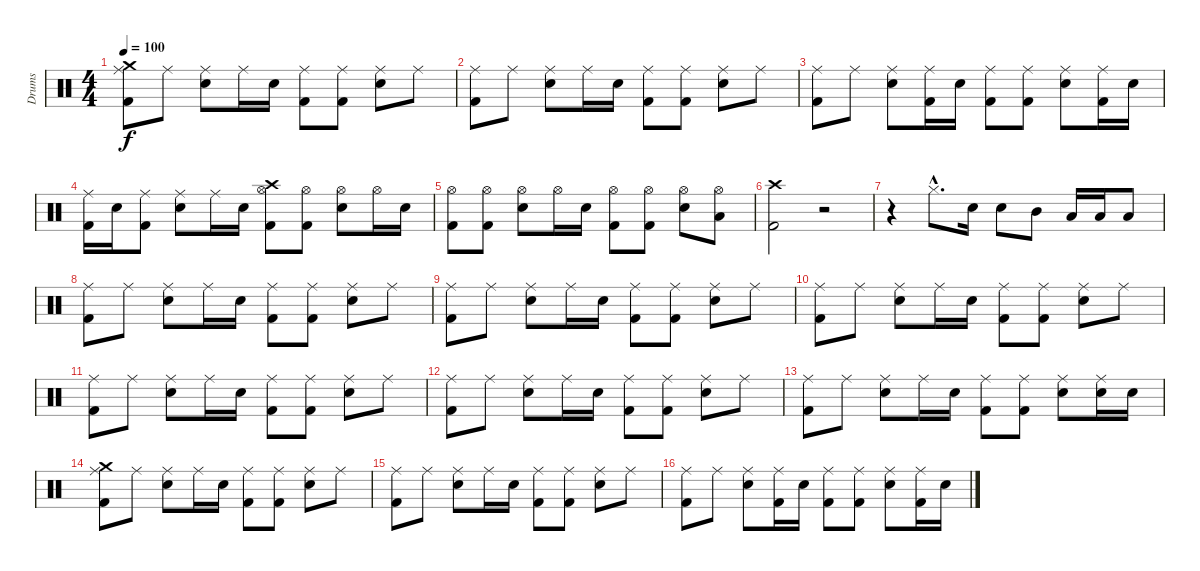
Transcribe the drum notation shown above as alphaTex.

\track ("Drums" "Drums") {instrument percussion}
\staff {score}
\articulation defaults
\ts (4 4)
\tempo 100
\clef neutral
\ks c
("Crash medium (hit)" "Ride (middle)" "Kick (hit) 2").8{dy f} "Ride (middle)".8 ("Ride (middle)" "Electric Snare (hit)").8 "Ride (middle)".16 "Electric Snare (hit)".16 ("Ride (middle)" "Kick (hit) 2").8 ("Ride (middle)" "Kick (hit) 2").8 ("Ride (middle)" "Electric Snare (hit)").8 "Ride (middle)".8 |
("Ride (middle)" "Kick (hit) 2").8 "Ride (middle)".8 ("Ride (middle)" "Electric Snare (hit)").8 "Ride (middle)".16 "Electric Snare (hit)".16 ("Ride (middle)" "Kick (hit) 2").8 ("Ride (middle)" "Kick (hit) 2").8 ("Ride (middle)" "Electric Snare (hit)").8 "Ride (middle)".8 |
("Ride (middle)" "Kick (hit) 2").8 "Ride (middle)".8 ("Ride (middle)" "Electric Snare (hit)").8 ("Ride (middle)" "Kick (hit) 2").16 "Electric Snare (hit)".16 ("Ride (middle)" "Kick (hit) 2").8 ("Ride (middle)" "Kick (hit) 2").8 ("Ride (middle)" "Electric Snare (hit)").8 ("Ride (middle)" "Kick (hit) 2").16 "Electric Snare (hit)".16 |
("Ride (middle)" "Kick (hit) 2").16 "Electric Snare (hit)".16 ("Ride (middle)" "Kick (hit) 2").8 ("Ride (middle)" "Electric Snare (hit)").8 "Ride (middle)".16 "Electric Snare (hit)".16 ("Crash high (hit)" "Hi-Hat (open)" "Kick (hit) 2").8 ("Hi-Hat (open)" "Kick (hit) 2").8 ("Hi-Hat (open)" "Electric Snare (hit)").8 "Hi-Hat (open)".16 "Electric Snare (hit)".16 |
("Hi-Hat (open)" "Kick (hit) 2").8 ("Hi-Hat (open)" "Kick (hit) 2").8 ("Hi-Hat (open)" "Electric Snare (hit)").8 "Hi-Hat (open)".16 "Electric Snare (hit)".16 ("Hi-Hat (open)" "Kick (hit) 2").8 ("Hi-Hat (open)" "Kick (hit) 2").8 ("Hi-Hat (open)" "Electric Snare (hit)").8 ("Hi-Hat (open)" "Low Tom (hit)").8 |
("Crash high (hit)" "Kick (hit) 2").2 r.2 |
r.4 "Hi-Hat (closed)"{hac}.8{d} "Electric Snare (hit)".16 "Electric Snare (hit)".8 "Mid Tom (hit)".8 "Low Tom (hit)".16 "Low Tom (hit)".16 "Low Tom (hit)".8 |
("Ride (middle)" "Kick (hit) 2").8 "Ride (middle)".8 ("Ride (middle)" "Electric Snare (hit)").8 "Ride (middle)".16 "Electric Snare (hit)".16 ("Ride (middle)" "Kick (hit) 2").8 ("Ride (middle)" "Kick (hit) 2").8 ("Ride (middle)" "Electric Snare (hit)").8 "Ride (middle)".8 |
("Ride (middle)" "Kick (hit) 2").8 "Ride (middle)".8 ("Ride (middle)" "Electric Snare (hit)").8 "Ride (middle)".16 "Electric Snare (hit)".16 ("Ride (middle)" "Kick (hit) 2").8 ("Ride (middle)" "Kick (hit) 2").8 ("Ride (middle)" "Electric Snare (hit)").8 "Ride (middle)".8 |
("Ride (middle)" "Kick (hit) 2").8 "Ride (middle)".8 ("Ride (middle)" "Electric Snare (hit)").8 "Ride (middle)".16 "Electric Snare (hit)".16 ("Ride (middle)" "Kick (hit) 2").8 ("Ride (middle)" "Kick (hit) 2").8 ("Ride (middle)" "Electric Snare (hit)").8 "Ride (middle)".8 |
("Ride (middle)" "Kick (hit) 2").8 "Ride (middle)".8 ("Ride (middle)" "Electric Snare (hit)").8 "Ride (middle)".16 "Electric Snare (hit)".16 ("Ride (middle)" "Kick (hit) 2").8 ("Ride (middle)" "Kick (hit) 2").8 ("Ride (middle)" "Electric Snare (hit)").8 "Ride (middle)".8 |
("Ride (middle)" "Kick (hit) 2").8 "Ride (middle)".8 ("Ride (middle)" "Electric Snare (hit)").8 "Ride (middle)".16 "Electric Snare (hit)".16 ("Ride (middle)" "Kick (hit) 2").8 ("Ride (middle)" "Kick (hit) 2").8 ("Ride (middle)" "Electric Snare (hit)").8 "Ride (middle)".8 |
("Ride (middle)" "Kick (hit) 2").8 "Ride (middle)".8 ("Ride (middle)" "Electric Snare (hit)").8 "Ride (middle)".16 "Electric Snare (hit)".16 ("Ride (middle)" "Kick (hit) 2").8 ("Ride (middle)" "Kick (hit) 2").8 ("Ride (middle)" "Electric Snare (hit)").8 ("Ride (middle)" "Electric Snare (hit)").16 "Electric Snare (hit)".16 |
("Crash medium (hit)" "Ride (middle)" "Kick (hit) 2").8 "Ride (middle)".8 ("Ride (middle)" "Electric Snare (hit)").8 "Ride (middle)".16 "Electric Snare (hit)".16 ("Ride (middle)" "Kick (hit) 2").8 ("Ride (middle)" "Kick (hit) 2").8 ("Ride (middle)" "Electric Snare (hit)").8 "Ride (middle)".8 |
("Ride (middle)" "Kick (hit) 2").8 "Ride (middle)".8 ("Ride (middle)" "Electric Snare (hit)").8 "Ride (middle)".16 "Electric Snare (hit)".16 ("Ride (middle)" "Kick (hit) 2").8 ("Ride (middle)" "Kick (hit) 2").8 ("Ride (middle)" "Electric Snare (hit)").8 "Ride (middle)".8 |
("Ride (middle)" "Kick (hit) 2").8 "Ride (middle)".8 ("Ride (middle)" "Electric Snare (hit)").8 ("Ride (middle)" "Kick (hit) 2").16 "Electric Snare (hit)".16 ("Ride (middle)" "Kick (hit) 2").8 ("Ride (middle)" "Kick (hit) 2").8 ("Ride (middle)" "Electric Snare (hit)").8 ("Ride (middle)" "Kick (hit) 2").16 "Electric Snare (hit)".16
